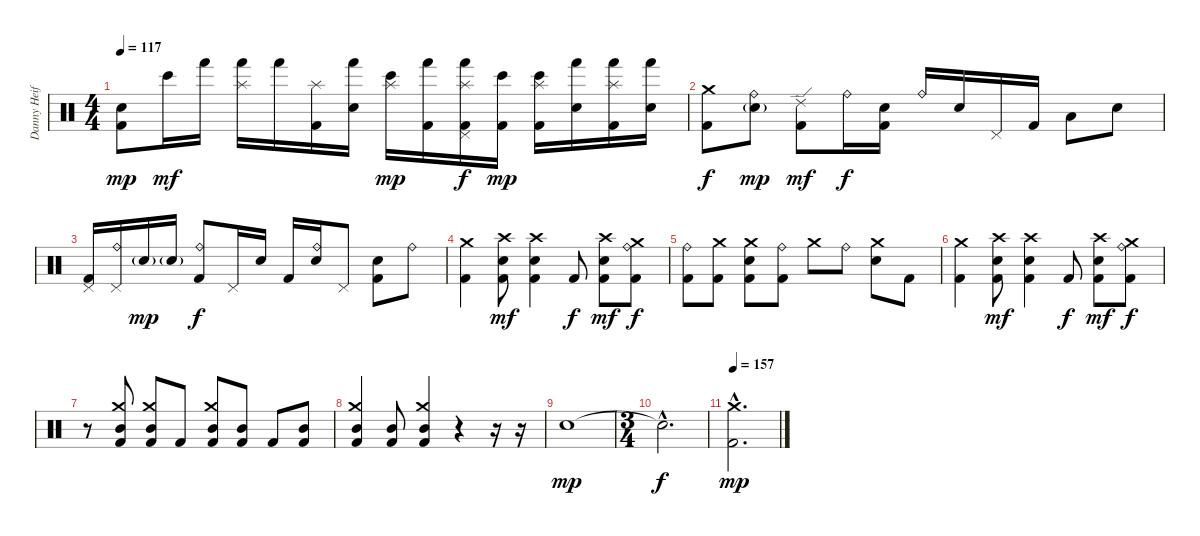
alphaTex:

\track ("Danny Heifetz - Drums" "Danny Heif") {instrument percussion}
\staff {score}
\articulation defaults
\ts (4 4)
\tempo 117
\clef neutral
\ks c
("Electric Snare (hit)" "Kick (hit) 2").8{dy mp} "Bongo High (hit)".16{dy mf} "Hand (hit)".16 ("Splash (hit)" "Hand (hit)").16 "Hand (hit)".16 ("Splash (hit)" "Kick (hit) 2").16 ("Hand (hit)" "Electric Snare (hit)").16 ("Splash (hit)" "Bongo High (hit)").16{dy mp} ("Hand (hit)" "Kick (hit) 2").16 ("Splash (hit)" "Hand (hit)" "Pedal Hi-Hat (hit)" "Kick (hit) 2").16{dy f} ("Bongo High (hit)" "Kick (hit) 2").16{dy mp} ("Splash (hit)" "Bongo High (hit)" "Kick (hit) 2").16 ("Hand (hit)" "Electric Snare (hit)").16 ("Splash (hit)" "Hand (hit)" "Kick (hit) 2").16 ("Hand (hit)" "Electric Snare (hit)").16 |
("Crash medium (hit)" "Kick (hit) 2").8{dy f volume 14} ("Ride (bell)" "Electric Snare (hit)"{g}).8{dy mp} ("Ride (edge) 2" "Kick (hit) 2").8{dy mf} "Ride (bell)".16{dy f} ("Electric Snare (hit)" "Kick (hit) 2").16 "Ride (bell)".16 "Electric Snare (hit)".16 "Pedal Hi-Hat (hit)".16 "Kick (hit) 2".16 "Low Tom (hit)".8 "Electric Snare (hit)".8 |
("Pedal Hi-Hat (hit)" "Kick (hit) 2").16 ("Ride (bell)" "Pedal Hi-Hat (hit)").16 "Electric Snare (hit)"{g}.16{dy mp} "Electric Snare (hit)"{g}.16 ("Ride (bell)" "Kick (hit) 2").8{dy f} "Pedal Hi-Hat (hit)".16 "Electric Snare (hit)".16 "Kick (hit) 2".16 ("Ride (bell)" "Electric Snare (hit)").16 "Pedal Hi-Hat (hit)".8 ("Electric Snare (hit)" "Kick (hit) 2").8 "Ride (bell)".8 |
("Crash medium (hit)" "Kick (hit) 2").4{volume 12} ("Crash high (hit)" "Electric Snare (hit)" "Kick (hit) 2").8{dy mf} ("Crash high (hit)" "Electric Snare (hit)" "Kick (hit) 2").4 "Kick (hit) 2".8{dy f} ("Crash high (hit)" "Electric Snare (hit)" "Kick (hit) 2").8{dy mf} ("Crash medium (hit)" "Ride (bell)" "Kick (hit) 2").8{dy f} |
("Ride (bell)" "Kick (hit) 2").8 ("Crash medium (hit)" "Kick (hit) 2").8 ("Crash medium (hit)" "Electric Snare (hit)" "Kick (hit) 2").8 ("Ride (bell)" "Kick (hit) 2").8 "Crash medium (hit)".8 "Ride (bell)".8 ("Crash medium (hit)" "Electric Snare (hit)").8 "Kick (hit) 2".8 |
("Crash medium (hit)" "Kick (hit) 2").4 ("Crash high (hit)" "Electric Snare (hit)" "Kick (hit) 2").8{dy mf} ("Crash high (hit)" "Electric Snare (hit)" "Kick (hit) 2").4 "Kick (hit) 2".8{dy f} ("Crash high (hit)" "Electric Snare (hit)" "Kick (hit) 2").8{dy mf} ("Crash medium (hit)" "Ride (bell)" "Kick (hit) 2").8{dy f} |
r.8 ("Crash medium (hit)" "Mid Tom (hit)" "Kick (hit) 2").8 ("Crash medium (hit)" "Mid Tom (hit)" "Kick (hit) 2").8 "Kick (hit) 2".8 ("Crash medium (hit)" "Mid Tom (hit)" "Kick (hit) 2").8 ("Mid Tom (hit)" "Kick (hit) 2").8 "Kick (hit) 2".8 ("Mid Tom (hit)" "Kick (hit) 2").8 |
("Crash medium (hit)" "Mid Tom (hit)" "Kick (hit) 2").4 ("Mid Tom (hit)" "Kick (hit) 2").8 ("Crash medium (hit)" "Mid Tom (hit)" "Kick (hit) 2").4 r.4 r.16 r.16{volume 5} |
"Electric Snare (hit)"{tr (40 32)}.1{dy mp volume 11} |
\ts (3 4)
"Snare (hit)"{hac t}.2{d dy f} |
\tempo 157
("Crash medium (hit)"{hac} "Kick (hit) 2"{hac}).2{d dy mp volume 13}
